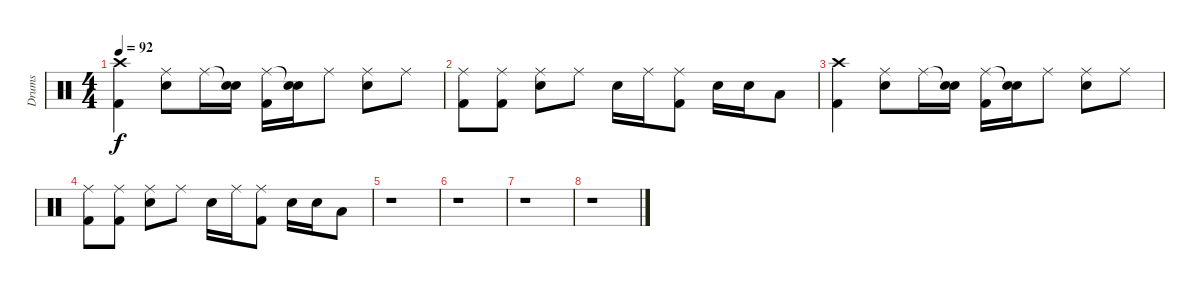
\track ("Drums" "Drums") {instrument percussion}
\staff {score}
\articulation defaults
\ts (4 4)
\tempo 92
\clef neutral
\ks c
("Crash high (hit)" "Kick (hit) 2").4{dy f} ("Ride (middle)" "Snare (hit) 2").8 "Ride (middle)".16 ("Snare (hit)"{t} "Snare (hit) 2").16 ("Ride (middle)" "Kick (hit) 2").16 ("Snare (hit)"{t} "Snare (hit) 2").16 "Ride (middle)".8 ("Ride (middle)" "Snare (hit) 2").8 "Ride (middle)".8 |
("Ride (middle)" "Kick (hit) 2").8 ("Ride (middle)" "Kick (hit) 2").8 ("Ride (middle)" "Snare (hit) 2").8 "Ride (middle)".8 "Snare (hit) 2".16 "Ride (middle)".16 ("Ride (middle)" "Kick (hit) 2").8 "Snare (hit) 2".16 "Snare (hit) 2".16 "Low Floor Tom (hit)".8 |
("Crash high (hit)" "Kick (hit) 2").4 ("Ride (middle)" "Snare (hit) 2").8 "Ride (middle)".16 ("Snare (hit)"{t} "Snare (hit) 2").16 ("Ride (middle)" "Kick (hit) 2").16 ("Snare (hit)"{t} "Snare (hit) 2").16 "Ride (middle)".8 ("Ride (middle)" "Snare (hit) 2").8 "Ride (middle)".8 |
("Ride (middle)" "Kick (hit) 2").8 ("Ride (middle)" "Kick (hit) 2").8 ("Ride (middle)" "Snare (hit) 2").8 "Ride (middle)".8 "Snare (hit) 2".16 "Ride (middle)".16 ("Ride (middle)" "Kick (hit) 2").8 "Snare (hit) 2".16 "Snare (hit) 2".16 "Low Floor Tom (hit)".8 |
r.1 |
r.1 |
r.1 |
r.1
